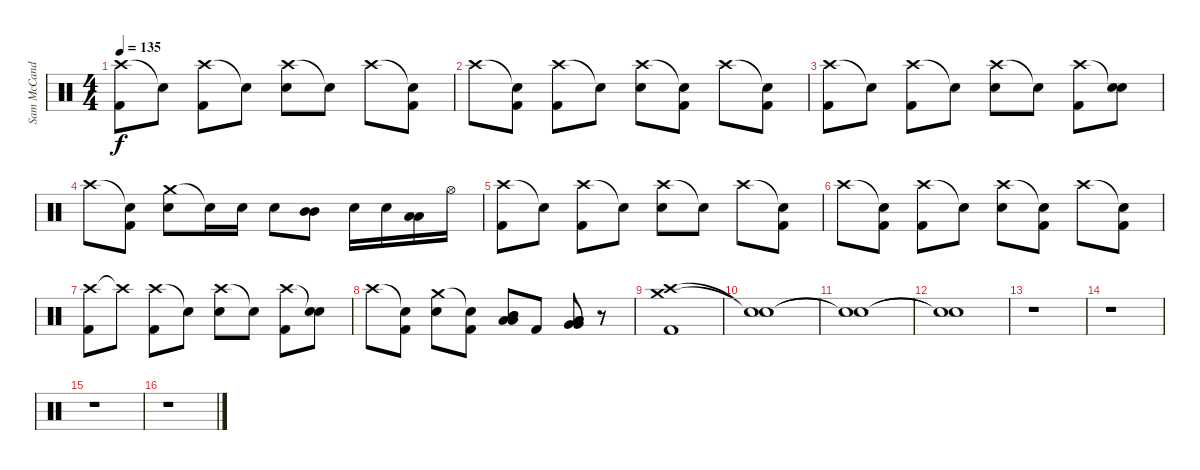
\track ("Sam McCandless (Drums)" "Sam McCand") {instrument percussion}
\staff {score}
\articulation defaults
\ts (4 4)
\tempo 135
\clef neutral
\ks c
("Crash high (hit)" "Kick (hit) 2").8{dy f} "Snare (hit)"{t}.8 ("Crash high (hit)" "Kick (hit) 2").8 "Snare (hit)"{t}.8 ("Crash high (hit)" "Electric Snare (hit)").8 "Snare (hit)"{t}.8 "Crash high (hit)".8 ("Snare (hit)"{t} "Kick (hit) 2").8 |
"Crash high (hit)".8 ("Snare (hit)"{t} "Kick (hit) 2").8 ("Crash high (hit)" "Kick (hit) 2").8 "Snare (hit)"{t}.8 ("Crash high (hit)" "Electric Snare (hit)").8 ("Snare (hit)"{t} "Kick (hit) 2").8 "Crash high (hit)".8 ("Snare (hit)"{t} "Kick (hit) 2").8 |
("Crash high (hit)" "Kick (hit) 2").8 "Snare (hit)"{t}.8 ("Crash high (hit)" "Kick (hit) 2").8 "Snare (hit)"{t}.8 ("Crash high (hit)" "Electric Snare (hit)").8 "Snare (hit)"{t}.8 ("Crash high (hit)" "Kick (hit) 2").8 ("Snare (hit)"{t} "Electric Snare (hit)").8 |
"Crash high (hit)".8 ("Snare (hit)"{t} "Kick (hit) 2").8 ("Crash medium (hit)" "Electric Snare (hit)").8 "Snare (hit)"{t}.16 "Electric Snare (hit)".16 "Electric Snare (hit)".8 ("Mid Tom (hit)" "Mid Tom (hit)").8 "Electric Snare (hit)".16 "Electric Snare (hit)".16 ("Low Tom (hit)" "Low Tom (hit)").16 "Hi-Hat (open)".16 |
("Crash high (hit)" "Kick (hit) 2").8 "Snare (hit)"{t}.8 ("Crash high (hit)" "Kick (hit) 2").8 "Snare (hit)"{t}.8 ("Crash high (hit)" "Electric Snare (hit)").8 "Snare (hit)"{t}.8 "Crash high (hit)".8 ("Snare (hit)"{t} "Kick (hit) 2").8 |
"Crash high (hit)".8 ("Snare (hit)"{t} "Kick (hit) 2").8 ("Crash high (hit)" "Kick (hit) 2").8 "Snare (hit)"{t}.8 ("Crash high (hit)" "Electric Snare (hit)").8 ("Snare (hit)"{t} "Kick (hit) 2").8 "Crash high (hit)".8 ("Snare (hit)"{t} "Kick (hit) 2").8 |
("Crash high (hit)" "Kick (hit) 2").8 "Crash high (hit)"{t}.8 ("Crash high (hit)" "Kick (hit) 2").8 "Snare (hit)"{t}.8 ("Crash high (hit)" "Electric Snare (hit)").8 "Snare (hit)"{t}.8 ("Crash high (hit)" "Kick (hit) 2").8 ("Snare (hit)"{t} "Electric Snare (hit)").8 |
"Crash high (hit)".8 ("Snare (hit)"{t} "Kick (hit) 2").8 ("Crash medium (hit)" "Electric Snare (hit)").8 ("Snare (hit)"{t} "Kick (hit) 2").8 ("Mid Tom (hit)" "Mid Tom (hit)" "Low Tom (hit)" "Low Tom (hit)").8 "Kick (hit) 2".8 ("Very Low Tom (hit)" "Very Low Tom (hit)" "Low Floor Tom (hit)" "Low Floor Tom (hit)").8 r.8 |
("Crash high (hit)" "Crash medium (hit)" "Kick (hit) 2").1 |
("Snare (hit)"{t} "Snare (hit)"{t}).1 |
("Snare (hit)"{t} "Snare (hit)"{t}).1 |
("Snare (hit)"{t} "Snare (hit)"{t}).1 |
r.1 |
r.1 |
r.1 |
r.1
